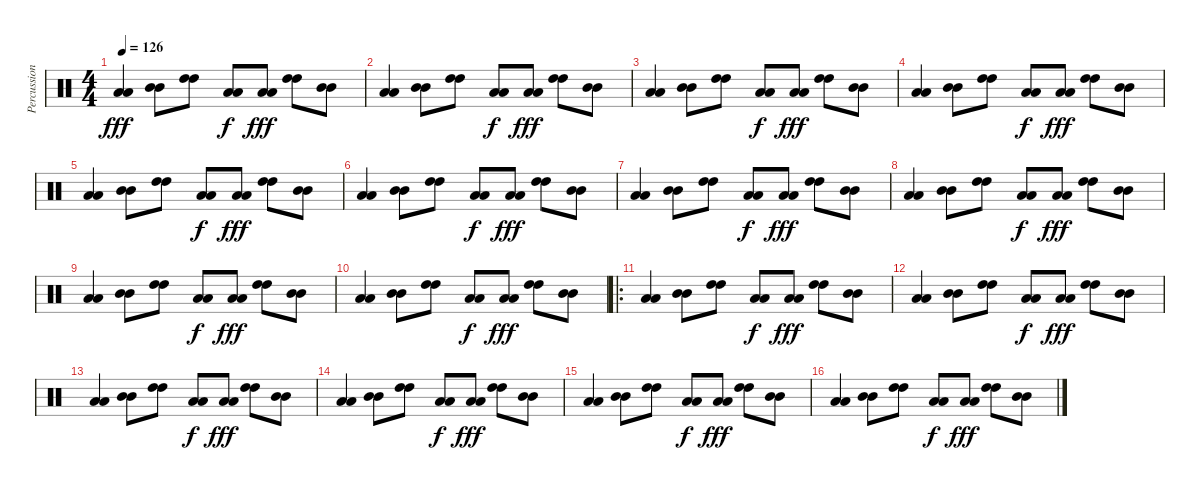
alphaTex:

\track ("Percussions 2" "Percussion") {instrument percussion}
\staff {score}
\articulation defaults
\ts (4 4)
\tempo 126
\clef neutral
\ks c
("Low Tom (hit)" "Low Tom (hit)").4{dy fff} ("Mid Tom (hit)" "Mid Tom (hit)").8 ("High Tom (hit)" "High Tom (hit)").8 ("Low Tom (hit)" "Low Tom (hit)").8{dy f} ("Low Tom (hit)" "Low Tom (hit)").8{dy fff} ("High Tom (hit)" "High Tom (hit)").8 ("Mid Tom (hit)" "Mid Tom (hit)").8 |
("Low Tom (hit)" "Low Tom (hit)").4 ("Mid Tom (hit)" "Mid Tom (hit)").8 ("High Tom (hit)" "High Tom (hit)").8 ("Low Tom (hit)" "Low Tom (hit)").8{dy f} ("Low Tom (hit)" "Low Tom (hit)").8{dy fff} ("High Tom (hit)" "High Tom (hit)").8 ("Mid Tom (hit)" "Mid Tom (hit)").8 |
("Low Tom (hit)" "Low Tom (hit)").4 ("Mid Tom (hit)" "Mid Tom (hit)").8 ("High Tom (hit)" "High Tom (hit)").8 ("Low Tom (hit)" "Low Tom (hit)").8{dy f} ("Low Tom (hit)" "Low Tom (hit)").8{dy fff} ("High Tom (hit)" "High Tom (hit)").8 ("Mid Tom (hit)" "Mid Tom (hit)").8 |
("Low Tom (hit)" "Low Tom (hit)").4 ("Mid Tom (hit)" "Mid Tom (hit)").8 ("High Tom (hit)" "High Tom (hit)").8 ("Low Tom (hit)" "Low Tom (hit)").8{dy f} ("Low Tom (hit)" "Low Tom (hit)").8{dy fff} ("High Tom (hit)" "High Tom (hit)").8 ("Mid Tom (hit)" "Mid Tom (hit)").8 |
("Low Tom (hit)" "Low Tom (hit)").4 ("Mid Tom (hit)" "Mid Tom (hit)").8 ("High Tom (hit)" "High Tom (hit)").8 ("Low Tom (hit)" "Low Tom (hit)").8{dy f} ("Low Tom (hit)" "Low Tom (hit)").8{dy fff} ("High Tom (hit)" "High Tom (hit)").8 ("Mid Tom (hit)" "Mid Tom (hit)").8 |
("Low Tom (hit)" "Low Tom (hit)").4 ("Mid Tom (hit)" "Mid Tom (hit)").8 ("High Tom (hit)" "High Tom (hit)").8 ("Low Tom (hit)" "Low Tom (hit)").8{dy f} ("Low Tom (hit)" "Low Tom (hit)").8{dy fff} ("High Tom (hit)" "High Tom (hit)").8 ("Mid Tom (hit)" "Mid Tom (hit)").8 |
("Low Tom (hit)" "Low Tom (hit)").4 ("Mid Tom (hit)" "Mid Tom (hit)").8 ("High Tom (hit)" "High Tom (hit)").8 ("Low Tom (hit)" "Low Tom (hit)").8{dy f} ("Low Tom (hit)" "Low Tom (hit)").8{dy fff} ("High Tom (hit)" "High Tom (hit)").8 ("Mid Tom (hit)" "Mid Tom (hit)").8 |
("Low Tom (hit)" "Low Tom (hit)").4 ("Mid Tom (hit)" "Mid Tom (hit)").8 ("High Tom (hit)" "High Tom (hit)").8 ("Low Tom (hit)" "Low Tom (hit)").8{dy f} ("Low Tom (hit)" "Low Tom (hit)").8{dy fff} ("High Tom (hit)" "High Tom (hit)").8 ("Mid Tom (hit)" "Mid Tom (hit)").8 |
("Low Tom (hit)" "Low Tom (hit)").4 ("Mid Tom (hit)" "Mid Tom (hit)").8 ("High Tom (hit)" "High Tom (hit)").8 ("Low Tom (hit)" "Low Tom (hit)").8{dy f} ("Low Tom (hit)" "Low Tom (hit)").8{dy fff} ("High Tom (hit)" "High Tom (hit)").8 ("Mid Tom (hit)" "Mid Tom (hit)").8 |
("Low Tom (hit)" "Low Tom (hit)").4 ("Mid Tom (hit)" "Mid Tom (hit)").8 ("High Tom (hit)" "High Tom (hit)").8 ("Low Tom (hit)" "Low Tom (hit)").8{dy f} ("Low Tom (hit)" "Low Tom (hit)").8{dy fff} ("High Tom (hit)" "High Tom (hit)").8 ("Mid Tom (hit)" "Mid Tom (hit)").8 |
\ro
("Low Tom (hit)" "Low Tom (hit)").4 ("Mid Tom (hit)" "Mid Tom (hit)").8 ("High Tom (hit)" "High Tom (hit)").8 ("Low Tom (hit)" "Low Tom (hit)").8{dy f} ("Low Tom (hit)" "Low Tom (hit)").8{dy fff} ("High Tom (hit)" "High Tom (hit)").8 ("Mid Tom (hit)" "Mid Tom (hit)").8 |
("Low Tom (hit)" "Low Tom (hit)").4 ("Mid Tom (hit)" "Mid Tom (hit)").8 ("High Tom (hit)" "High Tom (hit)").8 ("Low Tom (hit)" "Low Tom (hit)").8{dy f} ("Low Tom (hit)" "Low Tom (hit)").8{dy fff} ("High Tom (hit)" "High Tom (hit)").8 ("Mid Tom (hit)" "Mid Tom (hit)").8 |
("Low Tom (hit)" "Low Tom (hit)").4 ("Mid Tom (hit)" "Mid Tom (hit)").8 ("High Tom (hit)" "High Tom (hit)").8 ("Low Tom (hit)" "Low Tom (hit)").8{dy f} ("Low Tom (hit)" "Low Tom (hit)").8{dy fff} ("High Tom (hit)" "High Tom (hit)").8 ("Mid Tom (hit)" "Mid Tom (hit)").8 |
("Low Tom (hit)" "Low Tom (hit)").4 ("Mid Tom (hit)" "Mid Tom (hit)").8 ("High Tom (hit)" "High Tom (hit)").8 ("Low Tom (hit)" "Low Tom (hit)").8{dy f} ("Low Tom (hit)" "Low Tom (hit)").8{dy fff} ("High Tom (hit)" "High Tom (hit)").8 ("Mid Tom (hit)" "Mid Tom (hit)").8 |
("Low Tom (hit)" "Low Tom (hit)").4 ("Mid Tom (hit)" "Mid Tom (hit)").8 ("High Tom (hit)" "High Tom (hit)").8 ("Low Tom (hit)" "Low Tom (hit)").8{dy f} ("Low Tom (hit)" "Low Tom (hit)").8{dy fff} ("High Tom (hit)" "High Tom (hit)").8 ("Mid Tom (hit)" "Mid Tom (hit)").8 |
("Low Tom (hit)" "Low Tom (hit)").4 ("Mid Tom (hit)" "Mid Tom (hit)").8 ("High Tom (hit)" "High Tom (hit)").8 ("Low Tom (hit)" "Low Tom (hit)").8{dy f} ("Low Tom (hit)" "Low Tom (hit)").8{dy fff} ("High Tom (hit)" "High Tom (hit)").8 ("Mid Tom (hit)" "Mid Tom (hit)").8
